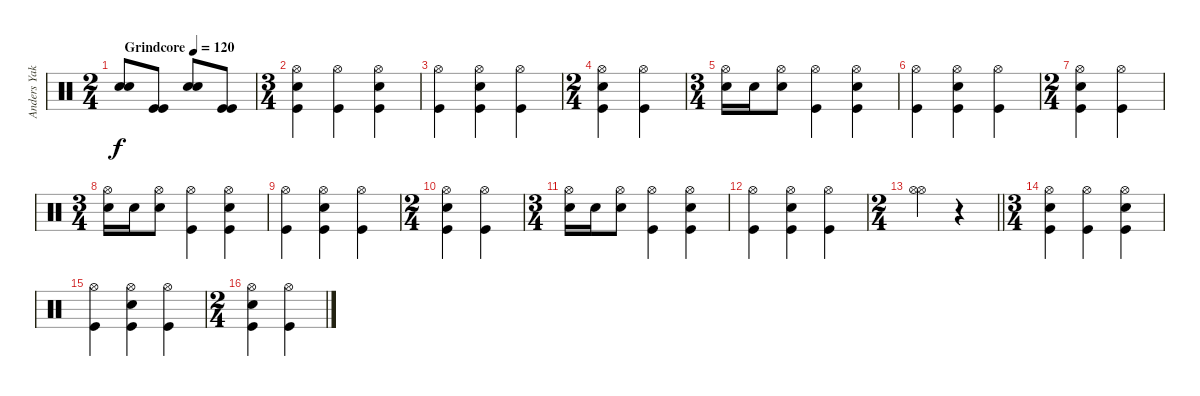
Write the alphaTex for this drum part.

\track ("Anders Yakobson" "Anders Yak") {instrument percussion}
\staff {score}
\articulation defaults
\ts (2 4)
\tempo (120 "Grindcore")
\clef neutral
\ks c
("Snare (hit) 2" "Snare (hit) 2").8{dy f} ("Kick (hit)" "Kick (hit)").8 ("Snare (hit) 2" "Snare (hit) 2").8 ("Kick (hit)" "Kick (hit)").8 |
\ts (3 4)
("Hi-Hat (open)" "Snare (hit) 2" "Kick (hit)").4 ("Hi-Hat (open)" "Kick (hit)").4 ("Hi-Hat (open)" "Snare (hit) 2" "Kick (hit)").4 |
("Hi-Hat (open)" "Kick (hit)").4 ("Hi-Hat (open)" "Snare (hit) 2" "Kick (hit)").4 ("Hi-Hat (open)" "Kick (hit)").4 |
\ts (2 4)
("Hi-Hat (open)" "Snare (hit) 2" "Kick (hit)").4 ("Hi-Hat (open)" "Kick (hit)").4 |
\ts (3 4)
("Hi-Hat (open)" "Snare (hit) 2").16 "Snare (hit) 2".16 ("Hi-Hat (open)" "Snare (hit) 2").8 ("Hi-Hat (open)" "Kick (hit)").4 ("Snare (hit) 2" "Kick (hit)" "Hi-Hat (open)").4 |
("Hi-Hat (open)" "Kick (hit)").4 ("Hi-Hat (open)" "Snare (hit) 2" "Kick (hit)").4 ("Hi-Hat (open)" "Kick (hit)").4 |
\ts (2 4)
("Hi-Hat (open)" "Snare (hit) 2" "Kick (hit)").4 ("Hi-Hat (open)" "Kick (hit)").4 |
\ts (3 4)
("Hi-Hat (open)" "Snare (hit) 2").16 "Snare (hit) 2".16 ("Hi-Hat (open)" "Snare (hit) 2").8 ("Hi-Hat (open)" "Kick (hit)").4 ("Snare (hit) 2" "Kick (hit)" "Hi-Hat (open)").4 |
("Hi-Hat (open)" "Kick (hit)").4 ("Hi-Hat (open)" "Snare (hit) 2" "Kick (hit)").4 ("Hi-Hat (open)" "Kick (hit)").4 |
\ts (2 4)
("Hi-Hat (open)" "Snare (hit) 2" "Kick (hit)").4 ("Hi-Hat (open)" "Kick (hit)").4 |
\ts (3 4)
("Hi-Hat (open)" "Snare (hit) 2").16 "Snare (hit) 2".16 ("Hi-Hat (open)" "Snare (hit) 2").8 ("Hi-Hat (open)" "Kick (hit)").4 ("Snare (hit) 2" "Kick (hit)" "Hi-Hat (open)").4 |
("Hi-Hat (open)" "Kick (hit)").4 ("Hi-Hat (open)" "Snare (hit) 2" "Kick (hit)").4 ("Hi-Hat (open)" "Kick (hit)").4 |
\ts (2 4)
\barLineRight lightlight
("Hi-Hat (open)" "Hi-Hat (open)").4 r.4 |
\ts (3 4)
("Hi-Hat (open)" "Snare (hit) 2" "Kick (hit)").4 ("Hi-Hat (open)" "Kick (hit)").4 ("Hi-Hat (open)" "Snare (hit) 2" "Kick (hit)").4 |
("Hi-Hat (open)" "Kick (hit)").4 ("Hi-Hat (open)" "Snare (hit) 2" "Kick (hit)").4 ("Hi-Hat (open)" "Kick (hit)").4 |
\ts (2 4)
("Hi-Hat (open)" "Snare (hit) 2" "Kick (hit)").4 ("Hi-Hat (open)" "Kick (hit)").4
